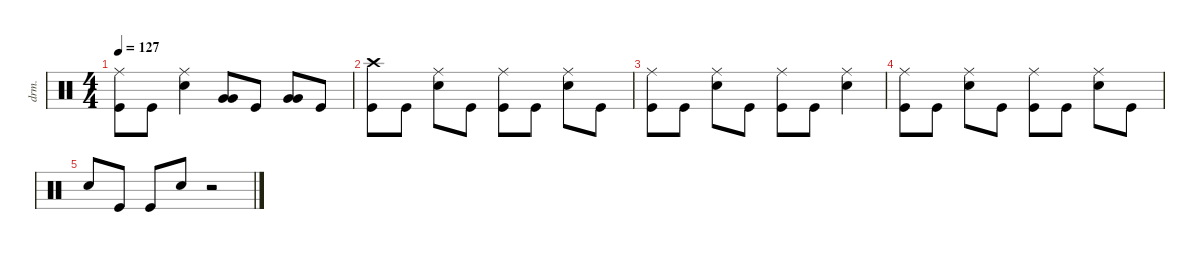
\defaultSystemsLayout 4
\hideDynamics
\bracketExtendMode nobrackets
\otherSystemsTrackNameOrientation horizontal
\track ("Drums" "drm.") {defaultSystemsLayout 4 instrument percussion}
\staff {score}
\articulation defaults
\ts (4 4)
\tempo 127
\clef neutral
\ks c
("Ride (middle)" "Kick (hit)").8{dy f beam Down} "Kick (hit)".8{beam Down} ("Ride (middle)" "Snare (hit) 2").4{beam Down} ("Very Low Tom (hit)" "Very Low Tom (hit)").8{beam Up} "Kick (hit)".8{beam Up} ("Very Low Tom (hit)" "Very Low Tom (hit)").8{beam Up} "Kick (hit)".8{beam Up} |
("Crash high (hit)" "Kick (hit)").8{beam Down} "Kick (hit)".8{beam Down} ("Ride (middle)" "Snare (hit) 2").8{beam Down} "Kick (hit)".8{beam Down} ("Ride (middle)" "Kick (hit)").8{beam Down} "Kick (hit)".8{beam Down} ("Ride (middle)" "Snare (hit) 2").8{beam Down} "Kick (hit)".8{beam Down} |
("Ride (middle)" "Kick (hit)").8{beam Down} "Kick (hit)".8{beam Down} ("Ride (middle)" "Snare (hit) 2").8{beam Down} "Kick (hit)".8{beam Down} ("Ride (middle)" "Kick (hit)").8{beam Down} "Kick (hit)".8{beam Down} ("Ride (middle)" "Snare (hit) 2").4{beam Down} |
("Ride (middle)" "Kick (hit)").8{beam Down} "Kick (hit)".8{beam Down} ("Ride (middle)" "Snare (hit) 2").8{beam Down} "Kick (hit)".8{beam Down} ("Ride (middle)" "Kick (hit)").8{beam Down} "Kick (hit)".8{beam Down} ("Ride (middle)" "Snare (hit) 2").8{beam Down} "Kick (hit)".8{beam Down} |
"Snare (hit) 2".8{beam Up} "Kick (hit)".8{beam Up} "Kick (hit)".8{beam Up} "Snare (hit) 2".8{beam Up} r.2{beam Up}
